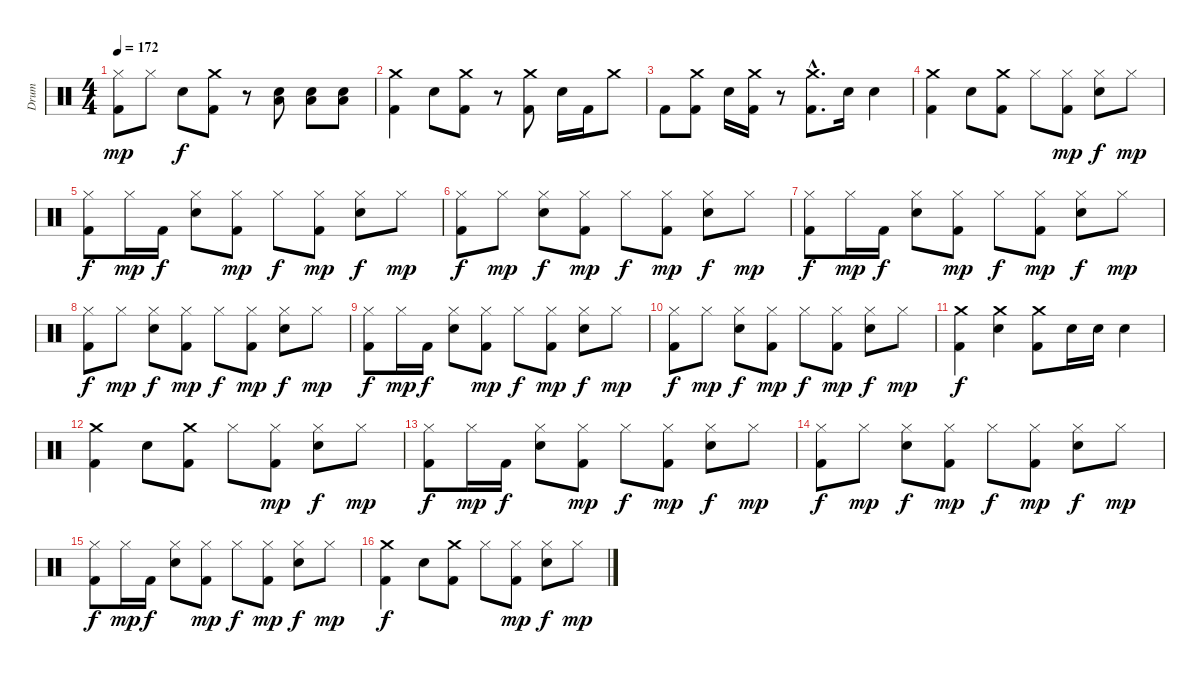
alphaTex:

\track ("Drum" "Drum") {instrument percussion}
\staff {score}
\articulation defaults
\ts (4 4)
\tempo 172
\clef neutral
\ks c
("Hi-Hat (closed)" "Kick (hit) 2").8{dy mp} "Hi-Hat (closed)".8 "Electric Snare (hit)".8{dy f} ("Crash medium (hit)" "Kick (hit) 2").8 r.8 ("Electric Snare (hit)" "Low Tom (hit)").8 ("Electric Snare (hit)" "Low Tom (hit)").8 ("Electric Snare (hit)" "Low Tom (hit)").8 |
("Crash medium (hit)" "Kick (hit) 2").4 "Electric Snare (hit)".8 ("Crash medium (hit)" "Kick (hit) 2").8 r.8 ("Crash medium (hit)" "Kick (hit) 2").8 "Electric Snare (hit)".16 "Kick (hit) 2".16 "Crash medium (hit)".8 |
"Kick (hit) 2".8 ("Crash medium (hit)" "Kick (hit) 2").8 "Electric Snare (hit)".16 ("Crash medium (hit)" "Kick (hit) 2").16 r.8 ("Crash medium (hit)"{hac} "Kick (hit) 2"{hac}).8{d} "Electric Snare (hit)".16 "Electric Snare (hit)".4 |
("Crash medium (hit)" "Kick (hit) 2").4 "Electric Snare (hit)".8 ("Crash medium (hit)" "Kick (hit) 2").8 "Hi-Hat (closed)".8 ("Hi-Hat (closed)" "Kick (hit) 2").8{dy mp} ("Hi-Hat (closed)" "Electric Snare (hit)").8{dy f} "Hi-Hat (closed)".8{dy mp} |
("Hi-Hat (closed)" "Kick (hit) 2").8{dy f} "Hi-Hat (closed)".16{dy mp} "Kick (hit) 2".16{dy f} ("Hi-Hat (closed)" "Electric Snare (hit)").8 ("Hi-Hat (closed)" "Kick (hit) 2").8{dy mp} "Hi-Hat (closed)".8{dy f} ("Hi-Hat (closed)" "Kick (hit) 2").8{dy mp} ("Hi-Hat (closed)" "Electric Snare (hit)").8{dy f} "Hi-Hat (closed)".8{dy mp} |
("Hi-Hat (closed)" "Kick (hit) 2").8{dy f} "Hi-Hat (closed)".8{dy mp} ("Hi-Hat (closed)" "Electric Snare (hit)").8{dy f} ("Hi-Hat (closed)" "Kick (hit) 2").8{dy mp} "Hi-Hat (closed)".8{dy f} ("Hi-Hat (closed)" "Kick (hit) 2").8{dy mp} ("Hi-Hat (closed)" "Electric Snare (hit)").8{dy f} "Hi-Hat (closed)".8{dy mp} |
("Hi-Hat (closed)" "Kick (hit) 2").8{dy f} "Hi-Hat (closed)".16{dy mp} "Kick (hit) 2".16{dy f} ("Hi-Hat (closed)" "Electric Snare (hit)").8 ("Hi-Hat (closed)" "Kick (hit) 2").8{dy mp} "Hi-Hat (closed)".8{dy f} ("Hi-Hat (closed)" "Kick (hit) 2").8{dy mp} ("Hi-Hat (closed)" "Electric Snare (hit)").8{dy f} "Hi-Hat (closed)".8{dy mp} |
("Hi-Hat (closed)" "Kick (hit) 2").8{dy f} "Hi-Hat (closed)".8{dy mp} ("Hi-Hat (closed)" "Electric Snare (hit)").8{dy f} ("Hi-Hat (closed)" "Kick (hit) 2").8{dy mp} "Hi-Hat (closed)".8{dy f} ("Hi-Hat (closed)" "Kick (hit) 2").8{dy mp} ("Hi-Hat (closed)" "Electric Snare (hit)").8{dy f} "Hi-Hat (closed)".8{dy mp} |
("Hi-Hat (closed)" "Kick (hit) 2").8{dy f} "Hi-Hat (closed)".16{dy mp} "Kick (hit) 2".16{dy f} ("Hi-Hat (closed)" "Electric Snare (hit)").8 ("Hi-Hat (closed)" "Kick (hit) 2").8{dy mp} "Hi-Hat (closed)".8{dy f} ("Hi-Hat (closed)" "Kick (hit) 2").8{dy mp} ("Hi-Hat (closed)" "Electric Snare (hit)").8{dy f} "Hi-Hat (closed)".8{dy mp} |
("Hi-Hat (closed)" "Kick (hit) 2").8{dy f} "Hi-Hat (closed)".8{dy mp} ("Hi-Hat (closed)" "Electric Snare (hit)").8{dy f} ("Hi-Hat (closed)" "Kick (hit) 2").8{dy mp} "Hi-Hat (closed)".8{dy f} ("Hi-Hat (closed)" "Kick (hit) 2").8{dy mp} ("Hi-Hat (closed)" "Electric Snare (hit)").8{dy f} "Hi-Hat (closed)".8{dy mp} |
("Crash medium (hit)" "Kick (hit) 2").4{dy f} ("Crash medium (hit)" "Electric Snare (hit)").4 ("Crash medium (hit)" "Kick (hit) 2").8 "Electric Snare (hit)".16 "Electric Snare (hit)".16 "Electric Snare (hit)".4 |
("Crash medium (hit)" "Kick (hit) 2").4 "Electric Snare (hit)".8 ("Crash medium (hit)" "Kick (hit) 2").8 "Hi-Hat (closed)".8 ("Hi-Hat (closed)" "Kick (hit) 2").8{dy mp} ("Hi-Hat (closed)" "Electric Snare (hit)").8{dy f} "Hi-Hat (closed)".8{dy mp} |
("Hi-Hat (closed)" "Kick (hit) 2").8{dy f} "Hi-Hat (closed)".16{dy mp} "Kick (hit) 2".16{dy f} ("Hi-Hat (closed)" "Electric Snare (hit)").8 ("Hi-Hat (closed)" "Kick (hit) 2").8{dy mp} "Hi-Hat (closed)".8{dy f} ("Hi-Hat (closed)" "Kick (hit) 2").8{dy mp} ("Hi-Hat (closed)" "Electric Snare (hit)").8{dy f} "Hi-Hat (closed)".8{dy mp} |
("Hi-Hat (closed)" "Kick (hit) 2").8{dy f} "Hi-Hat (closed)".8{dy mp} ("Hi-Hat (closed)" "Electric Snare (hit)").8{dy f} ("Hi-Hat (closed)" "Kick (hit) 2").8{dy mp} "Hi-Hat (closed)".8{dy f} ("Hi-Hat (closed)" "Kick (hit) 2").8{dy mp} ("Hi-Hat (closed)" "Electric Snare (hit)").8{dy f} "Hi-Hat (closed)".8{dy mp} |
("Hi-Hat (closed)" "Kick (hit) 2").8{dy f} "Hi-Hat (closed)".16{dy mp} "Kick (hit) 2".16{dy f} ("Hi-Hat (closed)" "Electric Snare (hit)").8 ("Hi-Hat (closed)" "Kick (hit) 2").8{dy mp} "Hi-Hat (closed)".8{dy f} ("Hi-Hat (closed)" "Kick (hit) 2").8{dy mp} ("Hi-Hat (closed)" "Electric Snare (hit)").8{dy f} "Hi-Hat (closed)".8{dy mp} |
("Crash medium (hit)" "Kick (hit) 2").4{dy f} "Electric Snare (hit)".8 ("Crash medium (hit)" "Kick (hit) 2").8 "Hi-Hat (closed)".8 ("Hi-Hat (closed)" "Kick (hit) 2").8{dy mp} ("Hi-Hat (closed)" "Electric Snare (hit)").8{dy f} "Hi-Hat (closed)".8{dy mp}
